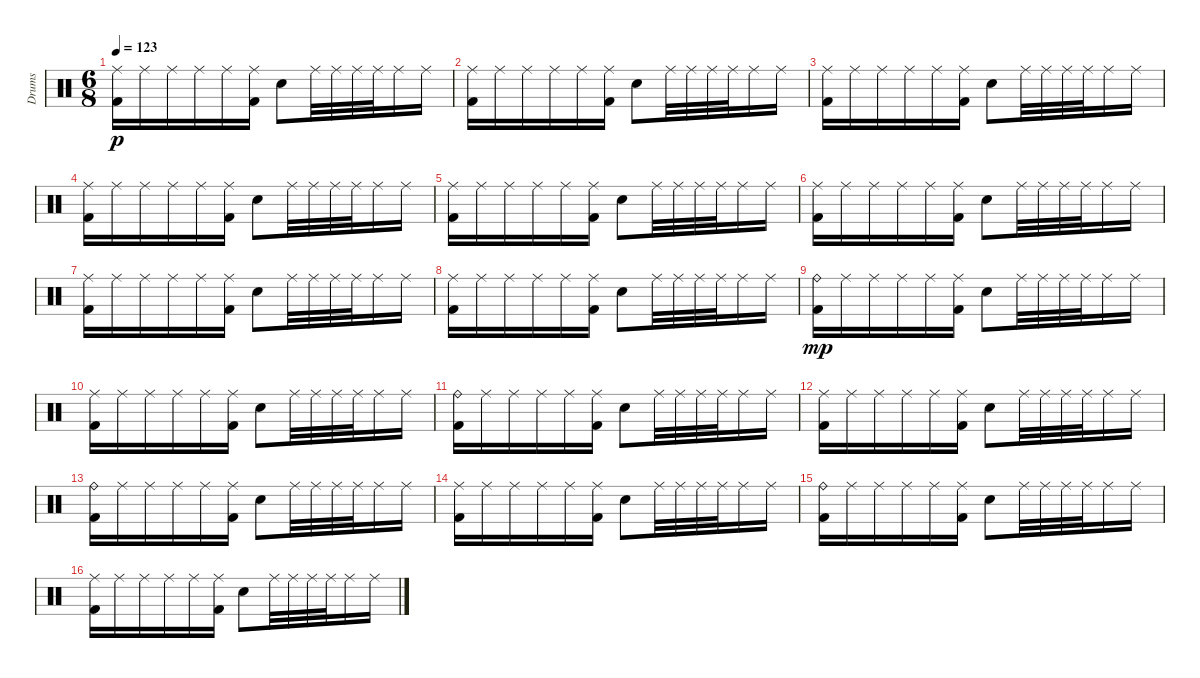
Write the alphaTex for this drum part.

\track ("Drums" "Drums") {instrument percussion}
\staff {score}
\articulation defaults
\ts (6 8)
\tempo 123
\clef neutral
\ks c
("Ride (middle)" "Kick (hit) 2").16{dy p volume 0} "Ride (middle)".16{volume 4} "Ride (middle)".16 "Ride (middle)".16 "Ride (middle)".16 ("Ride (middle)" "Kick (hit) 2").16 "Electric Snare (hit)".8 "Ride (middle)".32 "Ride (middle)".32 "Ride (middle)".32 "Ride (middle)".32 "Ride (middle)".16 "Ride (middle)".16 |
("Ride (middle)" "Kick (hit) 2").16 "Ride (middle)".16 "Ride (middle)".16 "Ride (middle)".16 "Ride (middle)".16 ("Ride (middle)" "Kick (hit) 2").16 "Electric Snare (hit)".8 "Ride (middle)".32 "Ride (middle)".32 "Ride (middle)".32 "Ride (middle)".32 "Ride (middle)".16 "Ride (middle)".16 |
("Ride (middle)" "Kick (hit) 2").16{volume 8} "Ride (middle)".16 "Ride (middle)".16 "Ride (middle)".16 "Ride (middle)".16 ("Ride (middle)" "Kick (hit) 2").16 "Electric Snare (hit)".8 "Ride (middle)".32 "Ride (middle)".32 "Ride (middle)".32 "Ride (middle)".32 "Ride (middle)".16 "Ride (middle)".16 |
("Ride (middle)" "Kick (hit) 2").16 "Ride (middle)".16 "Ride (middle)".16 "Ride (middle)".16 "Ride (middle)".16 ("Ride (middle)" "Kick (hit) 2").16 "Electric Snare (hit)".8 "Ride (middle)".32 "Ride (middle)".32 "Ride (middle)".32 "Ride (middle)".32 "Ride (middle)".16 "Ride (middle)".16 |
("Ride (middle)" "Kick (hit) 2").16{volume 10} "Ride (middle)".16 "Ride (middle)".16 "Ride (middle)".16 "Ride (middle)".16 ("Ride (middle)" "Kick (hit) 2").16 "Electric Snare (hit)".8 "Ride (middle)".32 "Ride (middle)".32 "Ride (middle)".32 "Ride (middle)".32 "Ride (middle)".16 "Ride (middle)".16 |
("Ride (middle)" "Kick (hit) 2").16 "Ride (middle)".16 "Ride (middle)".16 "Ride (middle)".16 "Ride (middle)".16 ("Ride (middle)" "Kick (hit) 2").16 "Electric Snare (hit)".8 "Ride (middle)".32 "Ride (middle)".32 "Ride (middle)".32 "Ride (middle)".32 "Ride (middle)".16 "Ride (middle)".16 |
("Ride (middle)" "Kick (hit) 2").16{volume 13} "Ride (middle)".16 "Ride (middle)".16 "Ride (middle)".16 "Ride (middle)".16 ("Ride (middle)" "Kick (hit) 2").16 "Electric Snare (hit)".8 "Ride (middle)".32 "Ride (middle)".32 "Ride (middle)".32 "Ride (middle)".32 "Ride (middle)".16 "Ride (middle)".16 |
("Ride (middle)" "Kick (hit) 2").16 "Ride (middle)".16 "Ride (middle)".16 "Ride (middle)".16 "Ride (middle)".16 ("Ride (middle)" "Kick (hit) 2").16 "Electric Snare (hit)".8 "Ride (middle)".32 "Ride (middle)".32 "Ride (middle)".32 "Ride (middle)".32 "Ride (middle)".16 "Ride (middle)".16 |
("Ride (bell)" "Kick (hit) 2").16{dy mp} "Ride (middle)".16 "Ride (middle)".16 "Ride (middle)".16 "Ride (middle)".16 ("Ride (middle)" "Kick (hit) 2").16 "Electric Snare (hit)".8 "Ride (middle)".32 "Ride (middle)".32 "Ride (middle)".32 "Ride (middle)".32 "Ride (middle)".16 "Ride (middle)".16 |
("Ride (middle)" "Kick (hit) 2").16 "Ride (middle)".16 "Ride (middle)".16 "Ride (middle)".16 "Ride (middle)".16 ("Ride (middle)" "Kick (hit) 2").16 "Electric Snare (hit)".8 "Ride (middle)".32 "Ride (middle)".32 "Ride (middle)".32 "Ride (middle)".32 "Ride (middle)".16 "Ride (middle)".16 |
("Ride (bell)" "Kick (hit) 2").16 "Ride (middle)".16 "Ride (middle)".16 "Ride (middle)".16 "Ride (middle)".16 ("Ride (middle)" "Kick (hit) 2").16 "Electric Snare (hit)".8 "Ride (middle)".32 "Ride (middle)".32 "Ride (middle)".32 "Ride (middle)".32 "Ride (middle)".16 "Ride (middle)".16 |
("Ride (middle)" "Kick (hit) 2").16 "Ride (middle)".16 "Ride (middle)".16 "Ride (middle)".16 "Ride (middle)".16 ("Ride (middle)" "Kick (hit) 2").16 "Electric Snare (hit)".8 "Ride (middle)".32 "Ride (middle)".32 "Ride (middle)".32 "Ride (middle)".32 "Ride (middle)".16 "Ride (middle)".16 |
("Ride (bell)" "Kick (hit) 2").16 "Ride (middle)".16 "Ride (middle)".16 "Ride (middle)".16 "Ride (middle)".16 ("Ride (middle)" "Kick (hit) 2").16 "Electric Snare (hit)".8 "Ride (middle)".32 "Ride (middle)".32 "Ride (middle)".32 "Ride (middle)".32 "Ride (middle)".16 "Ride (middle)".16 |
("Ride (middle)" "Kick (hit) 2").16 "Ride (middle)".16 "Ride (middle)".16 "Ride (middle)".16 "Ride (middle)".16 ("Ride (middle)" "Kick (hit) 2").16 "Electric Snare (hit)".8 "Ride (middle)".32 "Ride (middle)".32 "Ride (middle)".32 "Ride (middle)".32 "Ride (middle)".16 "Ride (middle)".16 |
("Ride (bell)" "Kick (hit) 2").16 "Ride (middle)".16 "Ride (middle)".16 "Ride (middle)".16 "Ride (middle)".16 ("Ride (middle)" "Kick (hit) 2").16 "Electric Snare (hit)".8 "Ride (middle)".32 "Ride (middle)".32 "Ride (middle)".32 "Ride (middle)".32 "Ride (middle)".16 "Ride (middle)".16 |
("Ride (middle)" "Kick (hit) 2").16 "Ride (middle)".16 "Ride (middle)".16 "Ride (middle)".16 "Ride (middle)".16 ("Ride (middle)" "Kick (hit) 2").16 "Electric Snare (hit)".8 "Ride (middle)".32 "Ride (middle)".32 "Ride (middle)".32 "Ride (middle)".32 "Ride (middle)".16 "Ride (middle)".16
